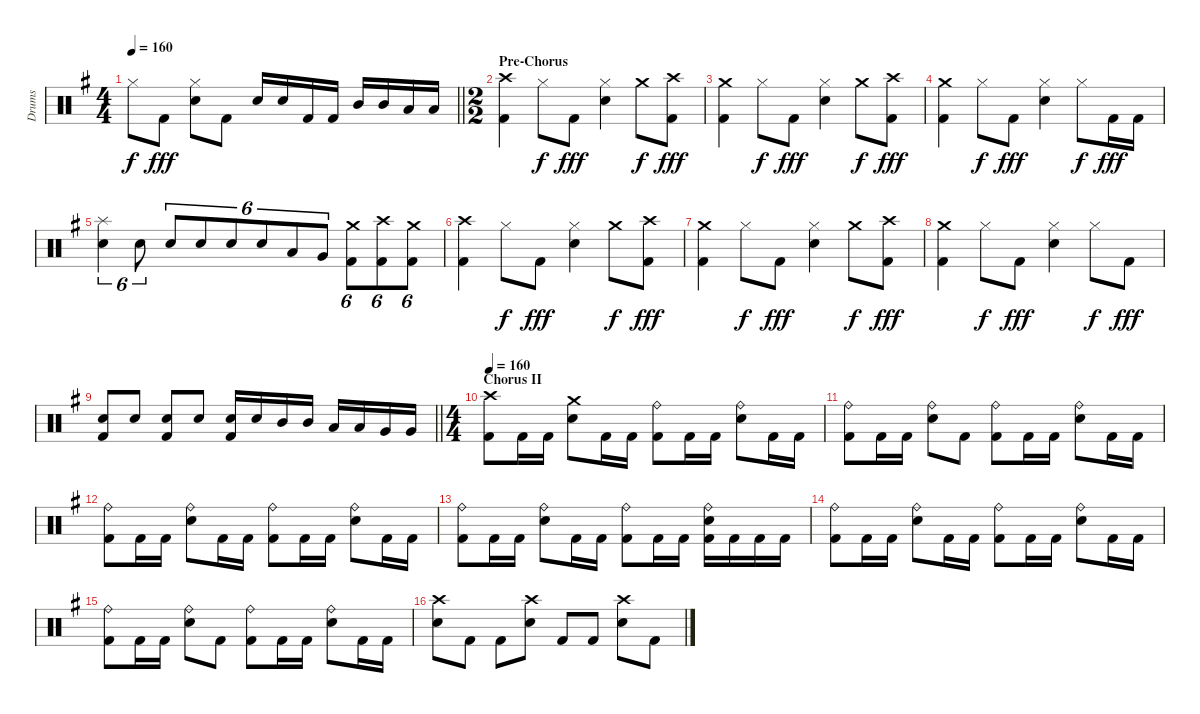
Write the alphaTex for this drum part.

\track ("Drums" "Drums") {instrument percussion}
\staff {score}
\articulation defaults
\ts (4 4)
\tempo 160
\clef neutral
\barLineRight lightlight
\ks g "Hi-Hat (closed)".8{dy f} "Kick (hit) 2".8{dy fff}
("Hi-Hat (closed)" "Snare (hit) 2").8 "Kick (hit) 2".8 "Snare (hit) 2".16 "Snare (hit) 2".16 "Kick (hit) 2".16 "Kick (hit) 2".16 "Mid Tom (hit)".16 "Mid Tom (hit)".16 "Low Tom (hit)".16 "Low Tom (hit)".16 |
\ts (2 2)
\section ("" "Pre-Chorus")
("Crash high (hit)" "Kick (hit) 2").4 "Hi-Hat (closed)".8{dy f} "Kick (hit) 2".8{dy fff} ("Hi-Hat (closed)" "Snare (hit) 2").4 "Crash medium (hit)".8{dy f} ("Crash high (hit)" "Kick (hit) 2").8{dy fff} |
("Crash medium (hit)" "Kick (hit) 2").4 "Hi-Hat (closed)".8{dy f} "Kick (hit) 2".8{dy fff} ("Hi-Hat (closed)" "Snare (hit) 2").4 "Crash medium (hit)".8{dy f} ("Crash high (hit)" "Kick (hit) 2").8{dy fff} |
("Crash medium (hit)" "Kick (hit) 2").4 "Hi-Hat (closed)".8{dy f} "Kick (hit) 2".8{dy fff} ("Hi-Hat (closed)" "Snare (hit) 2").4 "Hi-Hat (closed)".8{dy f} "Kick (hit) 2".16{dy fff} "Kick (hit) 2".16 |
("Splash (hit)" "Snare (hit) 2").4{tu (6 4)} "Snare (hit) 2".8{tu (6 4)} "Snare (hit) 2".8{tu (6 4)} "Snare (hit) 2".8{tu (6 4)} "Snare (hit) 2".8{tu (6 4)} "Snare (hit) 2".8{tu (6 4)} "Low Tom (hit)".8{tu (6 4)} "Very Low Tom (hit)".8{tu (6 4)} ("Crash medium (hit)" "Kick (hit) 2").8{tu (6 4)} ("Crash high (hit)" "Kick (hit) 2").8{tu (6 4)} ("Crash medium (hit)" "Kick (hit) 2").8{tu (6 4)} |
("Crash high (hit)" "Kick (hit) 2").4 "Hi-Hat (closed)".8{dy f} "Kick (hit) 2".8{dy fff} ("Hi-Hat (closed)" "Snare (hit) 2").4 "Crash medium (hit)".8{dy f} ("Crash high (hit)" "Kick (hit) 2").8{dy fff} |
("Crash medium (hit)" "Kick (hit) 2").4 "Hi-Hat (closed)".8{dy f} "Kick (hit) 2".8{dy fff} ("Hi-Hat (closed)" "Snare (hit) 2").4 "Crash medium (hit)".8{dy f} ("Crash high (hit)" "Kick (hit) 2").8{dy fff} |
("Crash medium (hit)" "Kick (hit) 2").4 "Hi-Hat (closed)".8{dy f} "Kick (hit) 2".8{dy fff} ("Hi-Hat (closed)" "Snare (hit) 2").4 "Hi-Hat (closed)".8{dy f} "Kick (hit) 2".8{dy fff} |
\barLineRight lightlight
("Snare (hit) 2" "Kick (hit) 2").8 "Snare (hit) 2".8 ("Snare (hit) 2" "Kick (hit) 2").8 "Snare (hit) 2".8 ("Snare (hit) 2" "Kick (hit) 2").16 "Snare (hit) 2".16 "Mid Tom (hit)".16 "Mid Tom (hit)".16 "Low Tom (hit)".16 "Low Tom (hit)".16 "Very Low Tom (hit)".16 "Very Low Tom (hit)".16 |
\ts (4 4)
\section ("" "Chorus II")
\tempo 160
("Crash high (hit)" "Kick (hit) 2").8 "Kick (hit) 2".16 "Kick (hit) 2".16 ("Crash medium (hit)" "Snare (hit) 2").8 "Kick (hit) 2".16 "Kick (hit) 2".16 ("Ride (bell)" "Kick (hit) 2").8 "Kick (hit) 2".16 "Kick (hit) 2".16 ("Ride (bell)" "Snare (hit) 2").8 "Kick (hit) 2".16 "Kick (hit) 2".16 |
("Ride (bell)" "Kick (hit) 2").8 "Kick (hit) 2".16 "Kick (hit) 2".16 ("Ride (bell)" "Snare (hit) 2").8 "Kick (hit) 2".8 ("Ride (bell)" "Kick (hit) 2").8 "Kick (hit) 2".16 "Kick (hit) 2".16 ("Ride (bell)" "Snare (hit) 2").8 "Kick (hit) 2".16 "Kick (hit) 2".16 |
("Ride (bell)" "Kick (hit) 2").8 "Kick (hit) 2".16 "Kick (hit) 2".16 ("Ride (bell)" "Snare (hit) 2").8 "Kick (hit) 2".16 "Kick (hit) 2".16 ("Ride (bell)" "Kick (hit) 2").8 "Kick (hit) 2".16 "Kick (hit) 2".16 ("Ride (bell)" "Snare (hit) 2").8 "Kick (hit) 2".16 "Kick (hit) 2".16 |
("Ride (bell)" "Kick (hit) 2").8 "Kick (hit) 2".16 "Kick (hit) 2".16 ("Ride (bell)" "Snare (hit) 2").8 "Kick (hit) 2".16 "Kick (hit) 2".16 ("Ride (bell)" "Kick (hit) 2").8 "Kick (hit) 2".16 "Kick (hit) 2".16 ("Ride (bell)" "Snare (hit) 2" "Kick (hit) 2").16 "Kick (hit) 2".16 "Kick (hit) 2".16 "Kick (hit) 2".16 |
("Ride (bell)" "Kick (hit) 2").8 "Kick (hit) 2".16 "Kick (hit) 2".16 ("Ride (bell)" "Snare (hit) 2").8 "Kick (hit) 2".16 "Kick (hit) 2".16 ("Ride (bell)" "Kick (hit) 2").8 "Kick (hit) 2".16 "Kick (hit) 2".16 ("Ride (bell)" "Snare (hit) 2").8 "Kick (hit) 2".16 "Kick (hit) 2".16 |
("Ride (bell)" "Kick (hit) 2").8 "Kick (hit) 2".16 "Kick (hit) 2".16 ("Ride (bell)" "Snare (hit) 2").8 "Kick (hit) 2".8 ("Ride (bell)" "Kick (hit) 2").8 "Kick (hit) 2".16 "Kick (hit) 2".16 ("Ride (bell)" "Snare (hit) 2").8 "Kick (hit) 2".16 "Kick (hit) 2".16 |
("Crash high (hit)" "Snare (hit) 2").8 "Kick (hit) 2".8 "Kick (hit) 2".8 ("Crash high (hit)" "Snare (hit) 2").8 "Kick (hit) 2".8 "Kick (hit) 2".8 ("Crash high (hit)" "Snare (hit) 2").8 "Kick (hit) 2".8
